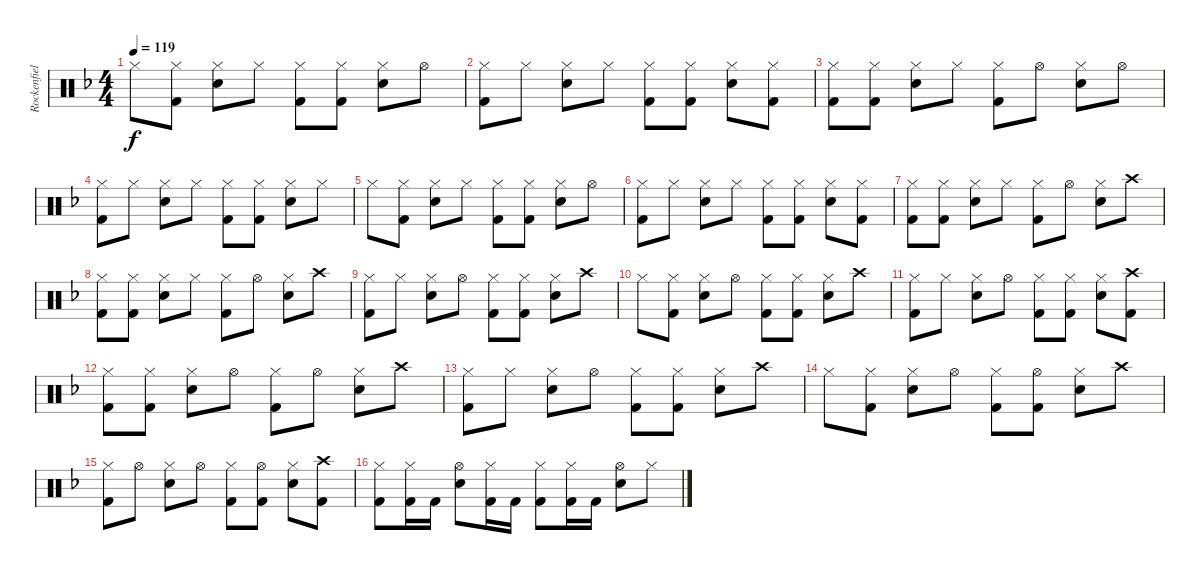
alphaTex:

\track ("Rockenfield" "Rockenfiel") {instrument percussion}
\staff {score}
\articulation defaults
\ts (4 4)
\tempo 119
\clef neutral
\ks dminor "Hi-Hat (closed)".8{dy f}
("Hi-Hat (closed)" "Kick (hit) 2").8 ("Hi-Hat (closed)" "Snare (hit) 2").8 "Hi-Hat (closed)".8 ("Hi-Hat (closed)" "Kick (hit) 2").8 ("Hi-Hat (closed)" "Kick (hit) 2").8 ("Hi-Hat (closed)" "Snare (hit) 2").8 "Hi-Hat (open)".8 |
("Hi-Hat (closed)" "Kick (hit) 2").8 "Hi-Hat (closed)".8 ("Hi-Hat (closed)" "Snare (hit) 2").8 "Hi-Hat (closed)".8 ("Hi-Hat (closed)" "Kick (hit) 2").8 ("Hi-Hat (closed)" "Kick (hit) 2").8 ("Hi-Hat (closed)" "Snare (hit) 2").8 ("Hi-Hat (closed)" "Kick (hit) 2").8 |
("Hi-Hat (closed)" "Kick (hit) 2").8 ("Hi-Hat (closed)" "Kick (hit) 2").8 ("Hi-Hat (closed)" "Snare (hit) 2").8 "Hi-Hat (closed)".8 ("Hi-Hat (closed)" "Kick (hit) 2").8 "Hi-Hat (open)".8 ("Hi-Hat (closed)" "Snare (hit) 2").8 "Hi-Hat (open)".8 |
("Hi-Hat (closed)" "Kick (hit) 2").8 "Hi-Hat (closed)".8 ("Hi-Hat (closed)" "Snare (hit) 2").8 "Hi-Hat (closed)".8 ("Hi-Hat (closed)" "Kick (hit) 2").8 ("Hi-Hat (closed)" "Kick (hit) 2").8 ("Hi-Hat (closed)" "Snare (hit) 2").8 "Hi-Hat (closed)".8 |
"Hi-Hat (closed)".8 ("Hi-Hat (closed)" "Kick (hit) 2").8 ("Hi-Hat (closed)" "Snare (hit) 2").8 "Hi-Hat (closed)".8 ("Hi-Hat (closed)" "Kick (hit) 2").8 ("Hi-Hat (closed)" "Kick (hit) 2").8 ("Hi-Hat (closed)" "Snare (hit) 2").8 "Hi-Hat (open)".8 |
("Hi-Hat (closed)" "Kick (hit) 2").8 "Hi-Hat (closed)".8 ("Hi-Hat (closed)" "Snare (hit) 2").8 "Hi-Hat (closed)".8 ("Hi-Hat (closed)" "Kick (hit) 2").8 ("Hi-Hat (closed)" "Kick (hit) 2").8 ("Hi-Hat (closed)" "Snare (hit) 2").8 ("Hi-Hat (closed)" "Kick (hit) 2").8 |
("Hi-Hat (closed)" "Kick (hit) 2").8 ("Hi-Hat (closed)" "Kick (hit) 2").8 ("Hi-Hat (closed)" "Snare (hit) 2").8 "Hi-Hat (closed)".8 ("Hi-Hat (closed)" "Kick (hit) 2").8 "Hi-Hat (open)".8 ("Hi-Hat (closed)" "Snare (hit) 2").8 "Crash high (hit)".8 |
("Hi-Hat (closed)" "Kick (hit) 2").8 ("Hi-Hat (closed)" "Kick (hit) 2").8 ("Hi-Hat (closed)" "Snare (hit) 2").8 "Hi-Hat (closed)".8 ("Hi-Hat (closed)" "Kick (hit) 2").8 "Hi-Hat (open)".8 ("Hi-Hat (closed)" "Snare (hit) 2").8 "Crash high (hit)".8 |
("Hi-Hat (closed)" "Kick (hit) 2").8 "Hi-Hat (closed)".8 ("Hi-Hat (closed)" "Snare (hit) 2").8 "Hi-Hat (open)".8 ("Hi-Hat (closed)" "Kick (hit) 2").8 ("Hi-Hat (closed)" "Kick (hit) 2").8 ("Hi-Hat (closed)" "Snare (hit) 2").8 "Crash high (hit)".8 |
"Hi-Hat (closed)".8 ("Hi-Hat (closed)" "Kick (hit) 2").8 ("Hi-Hat (closed)" "Snare (hit) 2").8 "Hi-Hat (open)".8 ("Hi-Hat (closed)" "Kick (hit) 2").8 ("Hi-Hat (closed)" "Kick (hit) 2").8 ("Hi-Hat (closed)" "Snare (hit) 2").8 "Crash high (hit)".8 |
("Hi-Hat (closed)" "Kick (hit) 2").8 "Hi-Hat (closed)".8 ("Hi-Hat (closed)" "Snare (hit) 2").8 "Hi-Hat (open)".8 ("Hi-Hat (closed)" "Kick (hit) 2").8 ("Hi-Hat (closed)" "Kick (hit) 2").8 ("Hi-Hat (closed)" "Snare (hit) 2").8 ("Crash high (hit)" "Kick (hit) 2").8 |
("Hi-Hat (closed)" "Kick (hit) 2").8 ("Hi-Hat (closed)" "Kick (hit) 2").8 ("Hi-Hat (closed)" "Snare (hit) 2").8 "Hi-Hat (open)".8 ("Hi-Hat (closed)" "Kick (hit) 2").8 "Hi-Hat (open)".8 ("Hi-Hat (closed)" "Snare (hit) 2").8 "Crash high (hit)".8 |
("Hi-Hat (closed)" "Kick (hit) 2").8 "Hi-Hat (closed)".8 ("Hi-Hat (closed)" "Snare (hit) 2").8 "Hi-Hat (open)".8 ("Hi-Hat (closed)" "Kick (hit) 2").8 ("Hi-Hat (closed)" "Kick (hit) 2").8 ("Hi-Hat (closed)" "Snare (hit) 2").8 "Crash high (hit)".8 |
"Hi-Hat (closed)".8 ("Hi-Hat (closed)" "Kick (hit) 2").8 ("Hi-Hat (closed)" "Snare (hit) 2").8 "Hi-Hat (open)".8 ("Hi-Hat (closed)" "Kick (hit) 2").8 ("Hi-Hat (open)" "Kick (hit) 2").8 ("Hi-Hat (closed)" "Snare (hit) 2").8 "Crash high (hit)".8 |
("Hi-Hat (closed)" "Kick (hit) 2").8 "Hi-Hat (open)".8 ("Hi-Hat (closed)" "Snare (hit) 2").8 "Hi-Hat (open)".8 ("Hi-Hat (closed)" "Kick (hit) 2").8 ("Hi-Hat (open)" "Kick (hit) 2").8 ("Hi-Hat (closed)" "Snare (hit) 2").8 ("Crash high (hit)" "Kick (hit) 2").8 |
("Hi-Hat (closed)" "Kick (hit) 2").8 ("Hi-Hat (closed)" "Kick (hit) 2").16 "Kick (hit) 2".16 ("Hi-Hat (open)" "Snare (hit) 2").8 ("Hi-Hat (closed)" "Kick (hit) 2").16 "Kick (hit) 2".16 ("Hi-Hat (closed)" "Kick (hit) 2").8 ("Hi-Hat (closed)" "Kick (hit) 2").16 "Kick (hit) 2".16 ("Hi-Hat (open)" "Snare (hit) 2").8 "Hi-Hat (closed)".8
